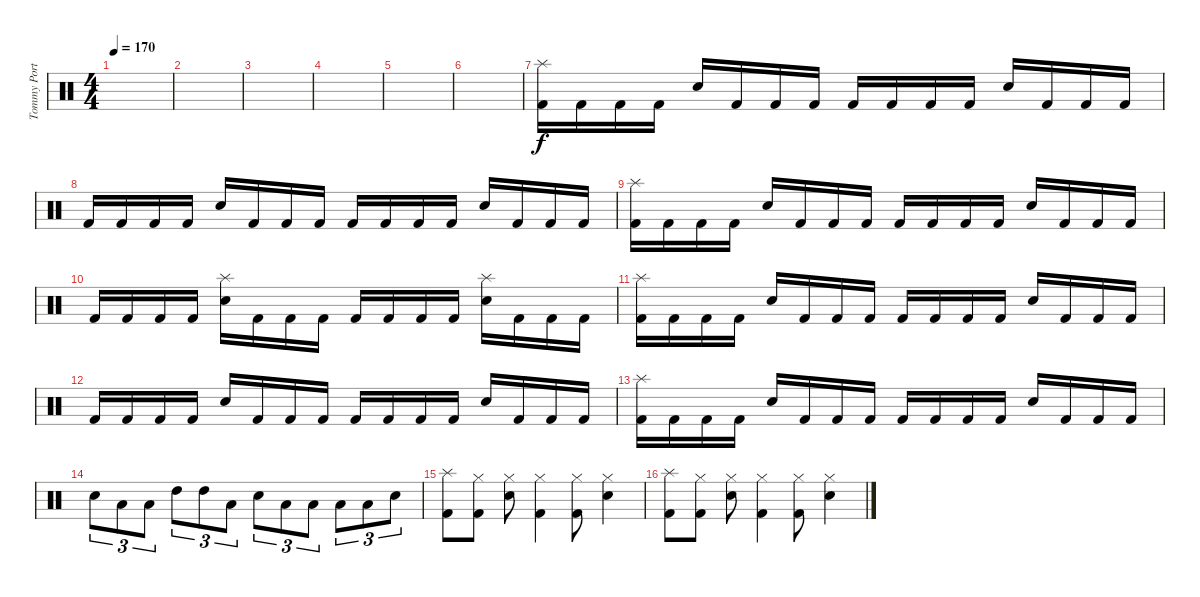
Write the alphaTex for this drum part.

\track ("Tommy Portimo" "Tommy Port") {instrument percussion}
\staff {score}
\articulation defaults
\ts (4 4)
\tempo 170
\clef neutral
\ks c
|
|
|
|
|
|
("Splash (hit)" "Kick (hit) 2").16 "Kick (hit) 2".16 "Kick (hit) 2".16 "Kick (hit) 2".16 "Electric Snare (hit)".16 "Kick (hit) 2".16 "Kick (hit) 2".16 "Kick (hit) 2".16 "Kick (hit) 2".16 "Kick (hit) 2".16 "Kick (hit) 2".16 "Kick (hit) 2".16 "Electric Snare (hit)".16 "Kick (hit) 2".16 "Kick (hit) 2".16 "Kick (hit) 2".16 |
"Kick (hit) 2".16 "Kick (hit) 2".16 "Kick (hit) 2".16 "Kick (hit) 2".16 "Electric Snare (hit)".16 "Kick (hit) 2".16 "Kick (hit) 2".16 "Kick (hit) 2".16 "Kick (hit) 2".16 "Kick (hit) 2".16 "Kick (hit) 2".16 "Kick (hit) 2".16 "Electric Snare (hit)".16 "Kick (hit) 2".16 "Kick (hit) 2".16 "Kick (hit) 2".16 |
("Splash (hit)" "Kick (hit) 2").16 "Kick (hit) 2".16 "Kick (hit) 2".16 "Kick (hit) 2".16 "Electric Snare (hit)".16 "Kick (hit) 2".16 "Kick (hit) 2".16 "Kick (hit) 2".16 "Kick (hit) 2".16 "Kick (hit) 2".16 "Kick (hit) 2".16 "Kick (hit) 2".16 "Electric Snare (hit)".16 "Kick (hit) 2".16 "Kick (hit) 2".16 "Kick (hit) 2".16 |
"Kick (hit) 2".16 "Kick (hit) 2".16 "Kick (hit) 2".16 "Kick (hit) 2".16 ("Splash (hit)" "Electric Snare (hit)").16 "Kick (hit) 2".16 "Kick (hit) 2".16 "Kick (hit) 2".16 "Kick (hit) 2".16 "Kick (hit) 2".16 "Kick (hit) 2".16 "Kick (hit) 2".16 ("Splash (hit)" "Electric Snare (hit)").16 "Kick (hit) 2".16 "Kick (hit) 2".16 "Kick (hit) 2".16 |
("Splash (hit)" "Kick (hit) 2").16 "Kick (hit) 2".16 "Kick (hit) 2".16 "Kick (hit) 2".16 "Electric Snare (hit)".16 "Kick (hit) 2".16 "Kick (hit) 2".16 "Kick (hit) 2".16 "Kick (hit) 2".16 "Kick (hit) 2".16 "Kick (hit) 2".16 "Kick (hit) 2".16 "Electric Snare (hit)".16 "Kick (hit) 2".16 "Kick (hit) 2".16 "Kick (hit) 2".16 |
"Kick (hit) 2".16 "Kick (hit) 2".16 "Kick (hit) 2".16 "Kick (hit) 2".16 "Electric Snare (hit)".16 "Kick (hit) 2".16 "Kick (hit) 2".16 "Kick (hit) 2".16 "Kick (hit) 2".16 "Kick (hit) 2".16 "Kick (hit) 2".16 "Kick (hit) 2".16 "Electric Snare (hit)".16 "Kick (hit) 2".16 "Kick (hit) 2".16 "Kick (hit) 2".16 |
("Splash (hit)" "Kick (hit) 2").16 "Kick (hit) 2".16 "Kick (hit) 2".16 "Kick (hit) 2".16 "Electric Snare (hit)".16 "Kick (hit) 2".16 "Kick (hit) 2".16 "Kick (hit) 2".16 "Kick (hit) 2".16 "Kick (hit) 2".16 "Kick (hit) 2".16 "Kick (hit) 2".16 "Electric Snare (hit)".16 "Kick (hit) 2".16 "Kick (hit) 2".16 "Kick (hit) 2".16 |
"Electric Snare (hit)".8{tu (3 2)} "Low Tom (hit)".8{tu (3 2)} "Low Tom (hit)".8{tu (3 2)} "High Tom (hit)".8{tu (3 2)} "High Tom (hit)".8{tu (3 2)} "Low Tom (hit)".8{tu (3 2)} "Electric Snare (hit)".8{tu (3 2)} "Low Tom (hit)".8{tu (3 2)} "Low Tom (hit)".8{tu (3 2)} "Low Tom (hit)".8{tu (3 2)} "Low Tom (hit)".8{tu (3 2)} "Electric Snare (hit)".8{tu (3 2)} |
("Splash (hit)" "Kick (hit) 2").8 ("Kick (hit) 2" "Hi-Hat (closed)").8 ("Electric Snare (hit)" "Hi-Hat (closed)").8 ("Kick (hit) 2" "Hi-Hat (closed)").4 ("Kick (hit) 2" "Hi-Hat (closed)").8 ("Electric Snare (hit)" "Hi-Hat (closed)").4 |
("Splash (hit)" "Kick (hit) 2").8 ("Kick (hit) 2" "Hi-Hat (closed)").8 ("Electric Snare (hit)" "Hi-Hat (closed)").8 ("Kick (hit) 2" "Hi-Hat (closed)").4 ("Kick (hit) 2" "Hi-Hat (closed)").8 ("Electric Snare (hit)" "Hi-Hat (closed)").4
